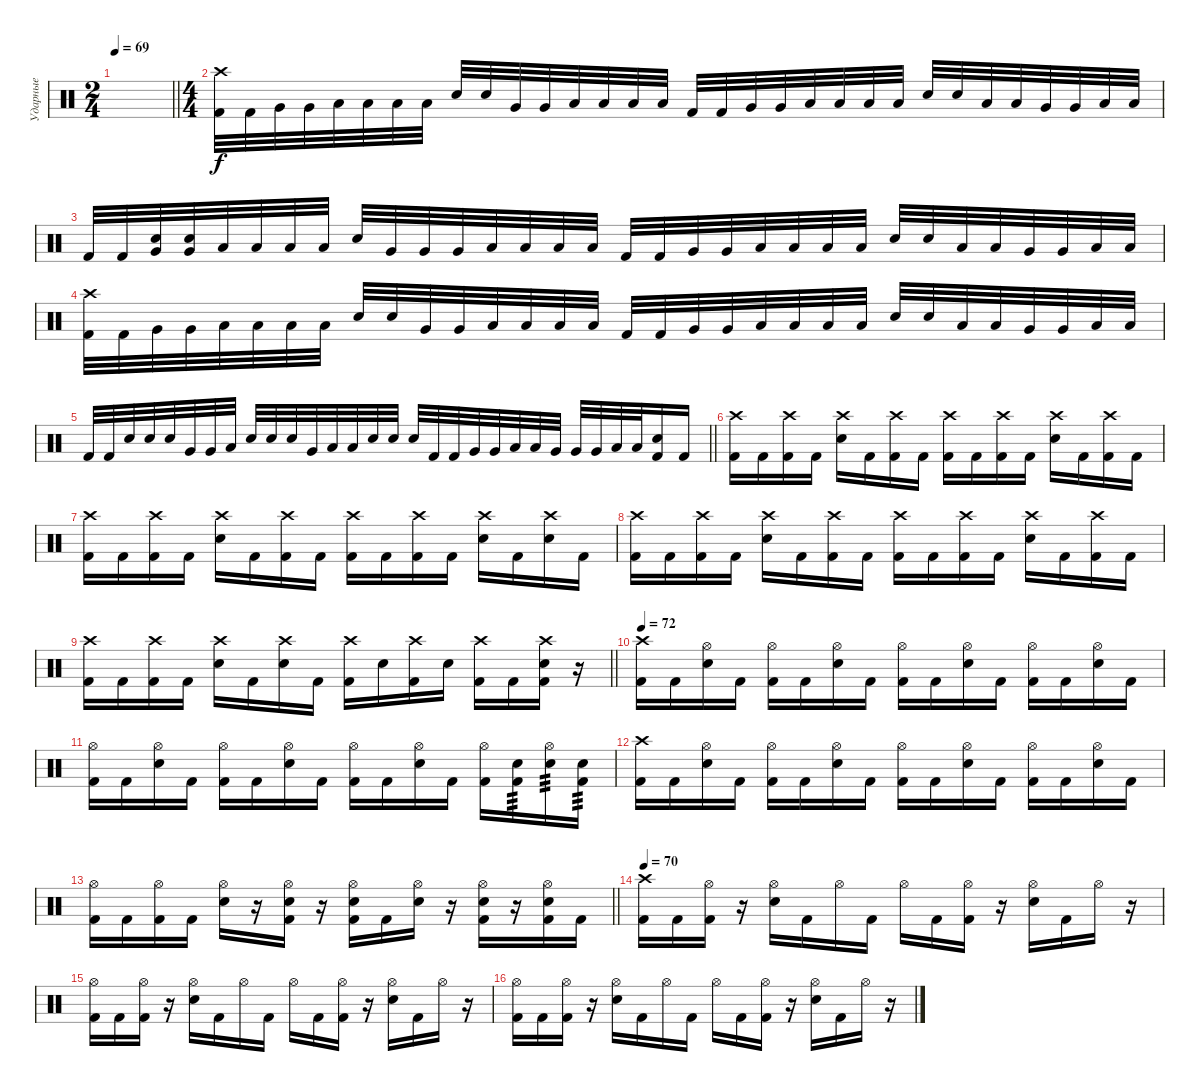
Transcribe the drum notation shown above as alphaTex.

\track ("Ударные" "Ударные") {instrument percussion}
\staff {score}
\articulation defaults
\ts (2 4)
\tempo 69
\clef neutral
\barLineRight lightlight
\ks c
|
\ts (4 4)
\section ("" "")
("Crash high (hit)" "Kick (hit) 2").32 "Kick (hit) 2".32 "Very Low Tom (hit)".32 "Very Low Tom (hit)".32 "Low Tom (hit)".32 "Low Tom (hit)".32 "Low Floor Tom (hit)".32 "Low Floor Tom (hit)".32 "Electric Snare (hit)".32 "Electric Snare (hit)".32 "Very Low Tom (hit)".32 "Very Low Tom (hit)".32 "Low Tom (hit)".32 "Low Tom (hit)".32 "Low Floor Tom (hit)".32 "Low Floor Tom (hit)".32 "Kick (hit) 2".32 "Kick (hit) 2".32 "Very Low Tom (hit)".32 "Very Low Tom (hit)".32 "Low Tom (hit)".32 "Low Tom (hit)".32 "Low Floor Tom (hit)".32 "Low Floor Tom (hit)".32 "Electric Snare (hit)".32 "Electric Snare (hit)".32 "Low Tom (hit)".32 "Low Tom (hit)".32 "Very Low Tom (hit)".32 "Very Low Tom (hit)".32 "Low Floor Tom (hit)".32 "Low Floor Tom (hit)".32 |
"Kick (hit) 2".32 "Kick (hit) 2".32 ("Electric Snare (hit)" "Very Low Tom (hit)").32 ("Electric Snare (hit)" "Very Low Tom (hit)").32 "Low Tom (hit)".32 "Low Tom (hit)".32 "Low Floor Tom (hit)".32 "Low Floor Tom (hit)".32 "Electric Snare (hit)".32 "Very Low Tom (hit)".32 "Very Low Tom (hit)".32 "Very Low Tom (hit)".32 "Low Tom (hit)".32 "Low Tom (hit)".32 "Low Floor Tom (hit)".32 "Low Floor Tom (hit)".32 "Kick (hit) 2".32 "Kick (hit) 2".32 "Very Low Tom (hit)".32 "Very Low Tom (hit)".32 "Low Tom (hit)".32 "Low Tom (hit)".32 "Low Floor Tom (hit)".32 "Low Floor Tom (hit)".32 "Electric Snare (hit)".32 "Electric Snare (hit)".32 "Low Tom (hit)".32 "Low Tom (hit)".32 "Very Low Tom (hit)".32 "Very Low Tom (hit)".32 "Low Floor Tom (hit)".32 "Low Floor Tom (hit)".32 |
("Crash high (hit)" "Kick (hit) 2").32 "Kick (hit) 2".32 "Very Low Tom (hit)".32 "Very Low Tom (hit)".32 "Low Tom (hit)".32 "Low Tom (hit)".32 "Low Floor Tom (hit)".32 "Low Floor Tom (hit)".32 "Electric Snare (hit)".32 "Electric Snare (hit)".32 "Very Low Tom (hit)".32 "Very Low Tom (hit)".32 "Low Tom (hit)".32 "Low Tom (hit)".32 "Low Floor Tom (hit)".32 "Low Floor Tom (hit)".32 "Kick (hit) 2".32 "Kick (hit) 2".32 "Very Low Tom (hit)".32 "Very Low Tom (hit)".32 "Low Tom (hit)".32 "Low Tom (hit)".32 "Low Floor Tom (hit)".32 "Low Floor Tom (hit)".32 "Electric Snare (hit)".32 "Electric Snare (hit)".32 "Low Tom (hit)".32 "Low Tom (hit)".32 "Very Low Tom (hit)".32 "Very Low Tom (hit)".32 "Low Floor Tom (hit)".32 "Low Floor Tom (hit)".32 |
\barLineRight lightlight "Kick (hit) 2".32 "Kick (hit) 2".32 "Electric Snare (hit)".32 "Electric Snare (hit)".32 "Electric Snare (hit)".32 "Very Low Tom (hit)".32 "Very Low Tom (hit)".32 "Low Floor Tom (hit)".32 "Electric Snare (hit)".32 "Electric Snare (hit)".32 "Electric Snare (hit)".32 "Very Low Tom (hit)".32 "Low Floor Tom (hit)".32 "Low Tom (hit)".32 "Electric Snare (hit)".32 "Electric Snare (hit)".32 "Electric Snare (hit)".32 "Kick (hit) 2".32 "Kick (hit) 2".32 "Very Low Tom (hit)".32 "Very Low Tom (hit)".32 "Low Tom (hit)".32 "Low Tom (hit)".32 "Very Low Tom (hit)".32 "Very Low Tom (hit)".32 "Very Low Tom (hit)".32 "Low Floor Tom (hit)".32 "Low Floor Tom (hit)".32
("Electric Snare (hit)" "Kick (hit) 2").16 "Kick (hit) 2".16 |
\section ("" "")
("Crash high (hit)" "Kick (hit) 2").16 "Kick (hit) 2".16 ("Crash high (hit)" "Kick (hit) 2").16 "Kick (hit) 2".16 ("Crash high (hit)" "Electric Snare (hit)").16 "Kick (hit) 2".16 ("Crash high (hit)" "Kick (hit) 2").16 "Kick (hit) 2".16 ("Crash high (hit)" "Kick (hit) 2").16 "Kick (hit) 2".16 ("Crash high (hit)" "Kick (hit) 2").16 "Kick (hit) 2".16 ("Crash high (hit)" "Electric Snare (hit)").16 "Kick (hit) 2".16 ("Crash high (hit)" "Kick (hit) 2").16 "Kick (hit) 2".16 |
("Crash high (hit)" "Kick (hit) 2").16 "Kick (hit) 2".16 ("Crash high (hit)" "Kick (hit) 2").16 "Kick (hit) 2".16 ("Crash high (hit)" "Electric Snare (hit)").16 "Kick (hit) 2".16 ("Crash high (hit)" "Kick (hit) 2").16 "Kick (hit) 2".16 ("Crash high (hit)" "Kick (hit) 2").16 "Kick (hit) 2".16 ("Crash high (hit)" "Kick (hit) 2").16 "Kick (hit) 2".16 ("Crash high (hit)" "Electric Snare (hit)").16 "Kick (hit) 2".16 ("Crash high (hit)" "Electric Snare (hit)").16 "Kick (hit) 2".16 |
("Crash high (hit)" "Kick (hit) 2").16 "Kick (hit) 2".16 ("Crash high (hit)" "Kick (hit) 2").16 "Kick (hit) 2".16 ("Crash high (hit)" "Electric Snare (hit)").16 "Kick (hit) 2".16 ("Crash high (hit)" "Kick (hit) 2").16 "Kick (hit) 2".16 ("Crash high (hit)" "Kick (hit) 2").16 "Kick (hit) 2".16 ("Crash high (hit)" "Kick (hit) 2").16 "Kick (hit) 2".16 ("Crash high (hit)" "Electric Snare (hit)").16 "Kick (hit) 2".16 ("Crash high (hit)" "Kick (hit) 2").16 "Kick (hit) 2".16 |
\barLineRight lightlight
("Crash high (hit)" "Kick (hit) 2").16 "Kick (hit) 2".16 ("Crash high (hit)" "Kick (hit) 2").16 "Kick (hit) 2".16 ("Crash high (hit)" "Electric Snare (hit)").16 "Kick (hit) 2".16 ("Crash high (hit)" "Electric Snare (hit)").16 "Kick (hit) 2".16 ("Crash high (hit)" "Kick (hit) 2").16 "Electric Snare (hit)".16 ("Crash high (hit)" "Kick (hit) 2").16 "Electric Snare (hit)".16 ("Crash high (hit)" "Kick (hit) 2").16 "Kick (hit) 2".16 ("Crash high (hit)" "Electric Snare (hit)" "Kick (hit) 2").16 r.16 |
\section ("" "")
\tempo 72
("Crash high (hit)" "Kick (hit) 2").16 "Kick (hit) 2".16 ("Hi-Hat (open)" "Electric Snare (hit)").16 "Kick (hit) 2".16 ("Hi-Hat (open)" "Kick (hit) 2").16 "Kick (hit) 2".16 ("Hi-Hat (open)" "Electric Snare (hit)").16 "Kick (hit) 2".16 ("Hi-Hat (open)" "Kick (hit) 2").16 "Kick (hit) 2".16 ("Hi-Hat (open)" "Electric Snare (hit)").16 "Kick (hit) 2".16 ("Hi-Hat (open)" "Kick (hit) 2").16 "Kick (hit) 2".16 ("Hi-Hat (open)" "Electric Snare (hit)").16 "Kick (hit) 2".16 |
("Hi-Hat (open)" "Kick (hit) 2").16 "Kick (hit) 2".16 ("Hi-Hat (open)" "Electric Snare (hit)").16 "Kick (hit) 2".16 ("Hi-Hat (open)" "Kick (hit) 2").16 "Kick (hit) 2".16 ("Hi-Hat (open)" "Electric Snare (hit)").16 "Kick (hit) 2".16 ("Hi-Hat (open)" "Kick (hit) 2").16 "Kick (hit) 2".16 ("Hi-Hat (open)" "Electric Snare (hit)").16 "Kick (hit) 2".16 ("Hi-Hat (open)" "Kick (hit) 2").16 ("Electric Snare (hit)" "Kick (hit) 2").16{tp 3} ("Hi-Hat (open)" "Electric Snare (hit)").16{tp 3} ("Electric Snare (hit)" "Kick (hit) 2").16{tp 3} |
("Crash high (hit)" "Kick (hit) 2").16 "Kick (hit) 2".16 ("Hi-Hat (open)" "Electric Snare (hit)").16 "Kick (hit) 2".16 ("Hi-Hat (open)" "Kick (hit) 2").16 "Kick (hit) 2".16 ("Hi-Hat (open)" "Electric Snare (hit)").16 "Kick (hit) 2".16 ("Hi-Hat (open)" "Kick (hit) 2").16 "Kick (hit) 2".16 ("Hi-Hat (open)" "Electric Snare (hit)").16 "Kick (hit) 2".16 ("Hi-Hat (open)" "Kick (hit) 2").16 "Kick (hit) 2".16 ("Hi-Hat (open)" "Electric Snare (hit)").16 "Kick (hit) 2".16 |
\barLineRight lightlight
("Hi-Hat (open)" "Kick (hit) 2").16 "Kick (hit) 2".16 ("Hi-Hat (open)" "Kick (hit) 2").16 "Kick (hit) 2".16 ("Hi-Hat (open)" "Electric Snare (hit)").16 r.16 ("Hi-Hat (open)" "Electric Snare (hit)" "Kick (hit) 2").16 r.16 ("Hi-Hat (open)" "Electric Snare (hit)" "Kick (hit) 2").16 "Kick (hit) 2".16 ("Hi-Hat (open)" "Electric Snare (hit)").16 r.16 ("Hi-Hat (open)" "Electric Snare (hit)" "Kick (hit) 2").16 r.16 ("Hi-Hat (open)" "Electric Snare (hit)" "Kick (hit) 2").16 "Kick (hit) 2".16 |
\section ("" "")
\tempo 70
("Crash high (hit)" "Kick (hit) 2").16 "Kick (hit) 2".16 ("Hi-Hat (open)" "Kick (hit) 2").16 r.16 ("Hi-Hat (open)" "Electric Snare (hit)").16 "Kick (hit) 2".16 "Hi-Hat (open)".16 "Kick (hit) 2".16 "Hi-Hat (open)".16 "Kick (hit) 2".16 ("Hi-Hat (open)" "Kick (hit) 2").16 r.16 ("Hi-Hat (open)" "Electric Snare (hit)").16 "Kick (hit) 2".16 "Hi-Hat (open)".16 r.16 |
("Hi-Hat (open)" "Kick (hit) 2").16 "Kick (hit) 2".16 ("Hi-Hat (open)" "Kick (hit) 2").16 r.16 ("Hi-Hat (open)" "Electric Snare (hit)").16 "Kick (hit) 2".16 "Hi-Hat (open)".16 "Kick (hit) 2".16 "Hi-Hat (open)".16 "Kick (hit) 2".16 ("Hi-Hat (open)" "Kick (hit) 2").16 r.16 ("Hi-Hat (open)" "Electric Snare (hit)").16 "Kick (hit) 2".16 "Hi-Hat (open)".16 r.16 |
("Hi-Hat (open)" "Kick (hit) 2").16 "Kick (hit) 2".16 ("Hi-Hat (open)" "Kick (hit) 2").16 r.16 ("Hi-Hat (open)" "Electric Snare (hit)").16 "Kick (hit) 2".16 "Hi-Hat (open)".16 "Kick (hit) 2".16 "Hi-Hat (open)".16 "Kick (hit) 2".16 ("Hi-Hat (open)" "Kick (hit) 2").16 r.16 ("Hi-Hat (open)" "Electric Snare (hit)").16 "Kick (hit) 2".16 "Hi-Hat (open)".16 r.16
